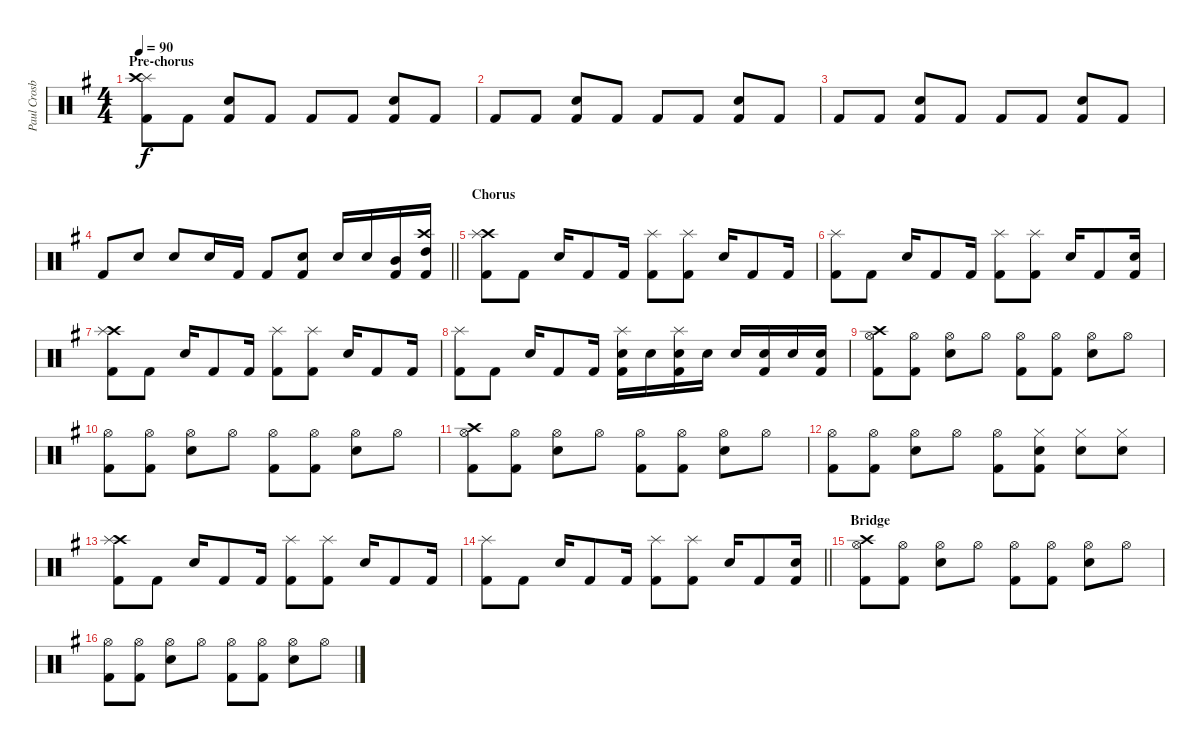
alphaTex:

\track ("Paul Crosby (Drums)" "Paul Crosb") {instrument percussion}
\staff {score}
\articulation defaults
\ts (4 4)
\section ("" "Pre-chorus")
\tempo 90
\clef neutral
\ks g
("Splash (hit)" "Kick (hit) 2" "Crash high (hit)").8{dy f} "Kick (hit) 2".8 ("Electric Snare (hit)" "Kick (hit) 2").8 "Kick (hit) 2".8 "Kick (hit) 2".8 "Kick (hit) 2".8 ("Electric Snare (hit)" "Kick (hit) 2").8 "Kick (hit) 2".8 |
"Kick (hit) 2".8 "Kick (hit) 2".8 ("Electric Snare (hit)" "Kick (hit) 2").8 "Kick (hit) 2".8 "Kick (hit) 2".8 "Kick (hit) 2".8 ("Electric Snare (hit)" "Kick (hit) 2").8 "Kick (hit) 2".8 |
"Kick (hit) 2".8 "Kick (hit) 2".8 ("Electric Snare (hit)" "Kick (hit) 2").8 "Kick (hit) 2".8 "Kick (hit) 2".8 "Kick (hit) 2".8 ("Electric Snare (hit)" "Kick (hit) 2").8 "Kick (hit) 2".8 |
\barLineRight lightlight "Kick (hit) 2".8 "Electric Snare (hit)".8 "Electric Snare (hit)".8 "Electric Snare (hit)".16 "Kick (hit) 2".16 "Kick (hit) 2".8
("Electric Snare (hit)" "Kick (hit) 2").8 "Electric Snare (hit)".16 "Electric Snare (hit)".16 ("Mid Tom (hit)" "Kick (hit) 2").16 ("High Tom (hit)" "Kick (hit) 2" "Crash high (hit)").16 |
\section ("" "Chorus")
("Crash high (hit)" "Kick (hit) 2" "Splash (hit)").8 "Kick (hit) 2".8 "Electric Snare (hit)".16 "Kick (hit) 2".8 "Kick (hit) 2".16 ("Kick (hit) 2" "Splash (hit)").8 ("Kick (hit) 2" "Splash (hit)").8 "Electric Snare (hit)".16 "Kick (hit) 2".8 "Kick (hit) 2".16 |
("Kick (hit) 2" "Splash (hit)").8 "Kick (hit) 2".8 "Electric Snare (hit)".16 "Kick (hit) 2".8 "Kick (hit) 2".16 ("Kick (hit) 2" "Splash (hit)").8 ("Kick (hit) 2" "Splash (hit)").8 "Electric Snare (hit)".16 "Kick (hit) 2".8 ("Electric Snare (hit)" "Kick (hit) 2").16 |
("Crash high (hit)" "Kick (hit) 2" "Splash (hit)").8 "Kick (hit) 2".8 "Electric Snare (hit)".16 "Kick (hit) 2".8 "Kick (hit) 2".16 ("Kick (hit) 2" "Splash (hit)").8 ("Kick (hit) 2" "Splash (hit)").8 "Electric Snare (hit)".16 "Kick (hit) 2".8 "Kick (hit) 2".16 |
("Kick (hit) 2" "Splash (hit)").8 "Kick (hit) 2".8 "Electric Snare (hit)".16 "Kick (hit) 2".8 "Kick (hit) 2".16 ("Electric Snare (hit)" "Kick (hit) 2" "Splash (hit)").16 "Electric Snare (hit)".16 ("Electric Snare (hit)" "Kick (hit) 2" "Splash (hit)").16 "Electric Snare (hit)".16 "Electric Snare (hit)".16 ("Electric Snare (hit)" "Kick (hit) 2").16 "Electric Snare (hit)".16 ("Electric Snare (hit)" "Kick (hit) 2").16 |
("Hi-Hat (open)" "Kick (hit) 2" "Crash high (hit)").8 ("Hi-Hat (open)" "Kick (hit) 2").8 ("Hi-Hat (open)" "Electric Snare (hit)").8 "Hi-Hat (open)".8 ("Hi-Hat (open)" "Kick (hit) 2").8 ("Hi-Hat (open)" "Kick (hit) 2").8 ("Hi-Hat (open)" "Electric Snare (hit)").8 "Hi-Hat (open)".8 |
("Hi-Hat (open)" "Kick (hit) 2").8 ("Hi-Hat (open)" "Kick (hit) 2").8 ("Hi-Hat (open)" "Electric Snare (hit)").8 "Hi-Hat (open)".8 ("Hi-Hat (open)" "Kick (hit) 2").8 ("Hi-Hat (open)" "Kick (hit) 2").8 ("Hi-Hat (open)" "Electric Snare (hit)").8 "Hi-Hat (open)".8 |
("Hi-Hat (open)" "Kick (hit) 2" "Crash high (hit)").8 ("Hi-Hat (open)" "Kick (hit) 2").8 ("Hi-Hat (open)" "Electric Snare (hit)").8 "Hi-Hat (open)".8 ("Hi-Hat (open)" "Kick (hit) 2").8 ("Hi-Hat (open)" "Kick (hit) 2").8 ("Hi-Hat (open)" "Electric Snare (hit)").8 "Hi-Hat (open)".8 |
("Hi-Hat (open)" "Kick (hit) 2").8 ("Hi-Hat (open)" "Kick (hit) 2").8 ("Hi-Hat (open)" "Electric Snare (hit)").8 "Hi-Hat (open)".8 ("Hi-Hat (open)" "Kick (hit) 2").8 ("Electric Snare (hit)" "Kick (hit) 2" "Hi-Hat (closed)").8 ("Electric Snare (hit)" "Hi-Hat (closed)").8 ("Electric Snare (hit)" "Hi-Hat (closed)").8 |
("Crash high (hit)" "Kick (hit) 2" "Splash (hit)").8 "Kick (hit) 2".8 "Electric Snare (hit)".16 "Kick (hit) 2".8 "Kick (hit) 2".16 ("Kick (hit) 2" "Splash (hit)").8 ("Kick (hit) 2" "Splash (hit)").8 "Electric Snare (hit)".16 "Kick (hit) 2".8 "Kick (hit) 2".16 |
\barLineRight lightlight
("Kick (hit) 2" "Splash (hit)").8 "Kick (hit) 2".8 "Electric Snare (hit)".16 "Kick (hit) 2".8 "Kick (hit) 2".16 ("Kick (hit) 2" "Splash (hit)").8 ("Kick (hit) 2" "Splash (hit)").8 "Electric Snare (hit)".16 "Kick (hit) 2".8 ("Electric Snare (hit)" "Kick (hit) 2").16 |
\section ("" "Bridge")
("Hi-Hat (open)" "Kick (hit) 2" "Crash high (hit)").8 ("Hi-Hat (open)" "Kick (hit) 2").8 ("Hi-Hat (open)" "Electric Snare (hit)").8 "Hi-Hat (open)".8 ("Hi-Hat (open)" "Kick (hit) 2").8 ("Hi-Hat (open)" "Kick (hit) 2").8 ("Hi-Hat (open)" "Electric Snare (hit)").8 "Hi-Hat (open)".8 |
("Hi-Hat (open)" "Kick (hit) 2").8 ("Hi-Hat (open)" "Kick (hit) 2").8 ("Hi-Hat (open)" "Electric Snare (hit)").8 "Hi-Hat (open)".8 ("Hi-Hat (open)" "Kick (hit) 2").8 ("Hi-Hat (open)" "Kick (hit) 2").8 ("Hi-Hat (open)" "Electric Snare (hit)").8 "Hi-Hat (open)".8
